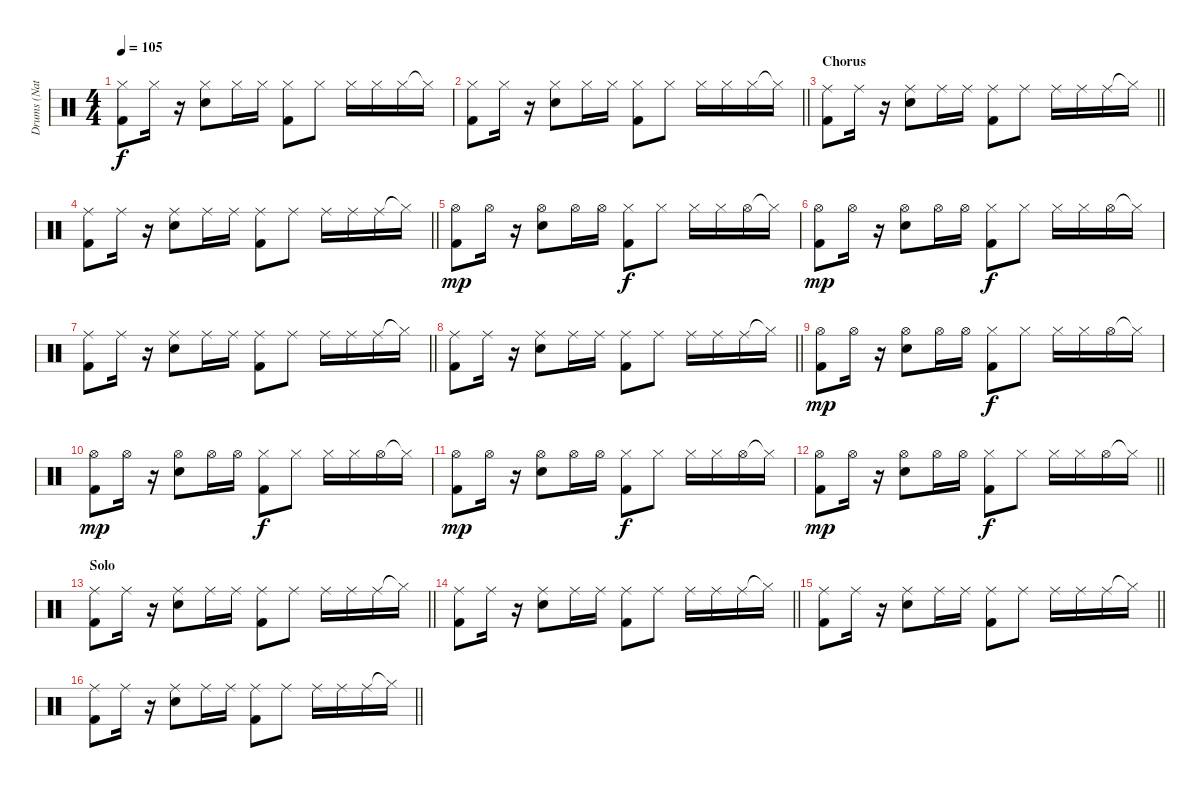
\track ("Drums (Nathan)" "Drums (Nat") {instrument percussion}
\staff {score}
\articulation defaults
\ts (4 4)
\tempo 105
\clef neutral
\ks c
("Hi-Hat (closed)" "Kick (hit) 2").8{dy f} "Hi-Hat (closed)".16 r.16 ("Hi-Hat (closed)" "Electric Snare (hit)").8 "Hi-Hat (closed)".16 "Hi-Hat (closed)".16 ("Hi-Hat (closed)" "Kick (hit) 2").8 "Hi-Hat (closed)".8 "Hi-Hat (closed)".16 "Hi-Hat (closed)".16 "Hi-Hat (closed)".16 "Hi-Hat (closed)"{t}.16 |
\barLineRight lightlight
("Hi-Hat (closed)" "Kick (hit) 2").8 "Hi-Hat (closed)".16 r.16 ("Hi-Hat (closed)" "Electric Snare (hit)").8 "Hi-Hat (closed)".16 "Hi-Hat (closed)".16 ("Hi-Hat (closed)" "Kick (hit) 2").8 "Hi-Hat (closed)".8 "Hi-Hat (closed)".16 "Hi-Hat (closed)".16 "Hi-Hat (closed)".16 "Hi-Hat (closed)"{t}.16 |
\section ("" "Chorus")
\barLineRight lightlight
("Ride (middle)" "Kick (hit) 2").8 "Ride (middle)".16 r.16 ("Ride (middle)" "Electric Snare (hit)").8 "Ride (middle)".16 "Ride (middle)".16 ("Ride (middle)" "Kick (hit) 2").8 "Ride (middle)".8 "Ride (middle)".16 "Ride (middle)".16 "Ride (middle)".16 "Hi-Hat (closed)"{t}.16 |
\barLineRight lightlight
("Ride (middle)" "Kick (hit) 2").8 "Ride (middle)".16 r.16 ("Ride (middle)" "Electric Snare (hit)").8 "Ride (middle)".16 "Ride (middle)".16 ("Ride (middle)" "Kick (hit) 2").8 "Ride (middle)".8 "Ride (middle)".16 "Ride (middle)".16 "Ride (middle)".16 "Hi-Hat (closed)"{t}.16 |
("Hi-Hat (open)" "Kick (hit) 2").8{dy mp} "Hi-Hat (open)".16 r.16 ("Hi-Hat (open)" "Electric Snare (hit)").8 "Hi-Hat (open)".16 "Hi-Hat (open)".16 ("Hi-Hat (closed)" "Kick (hit) 2").8{dy f} "Hi-Hat (closed)".8 "Hi-Hat (closed)".16 "Hi-Hat (closed)".16 "Hi-Hat (open)".16 "Hi-Hat (closed)"{t}.16 |
("Hi-Hat (open)" "Kick (hit) 2").8{dy mp} "Hi-Hat (open)".16 r.16 ("Hi-Hat (open)" "Electric Snare (hit)").8 "Hi-Hat (open)".16 "Hi-Hat (open)".16 ("Hi-Hat (closed)" "Kick (hit) 2").8{dy f} "Hi-Hat (closed)".8 "Hi-Hat (closed)".16 "Hi-Hat (closed)".16 "Hi-Hat (open)".16 "Hi-Hat (closed)"{t}.16 |
\barLineRight lightlight
("Ride (middle)" "Kick (hit) 2").8 "Ride (middle)".16 r.16 ("Ride (middle)" "Electric Snare (hit)").8 "Ride (middle)".16 "Ride (middle)".16 ("Ride (middle)" "Kick (hit) 2").8 "Ride (middle)".8 "Ride (middle)".16 "Ride (middle)".16 "Ride (middle)".16 "Hi-Hat (closed)"{t}.16 |
\barLineRight lightlight
("Ride (middle)" "Kick (hit) 2").8 "Ride (middle)".16 r.16 ("Ride (middle)" "Electric Snare (hit)").8 "Ride (middle)".16 "Ride (middle)".16 ("Ride (middle)" "Kick (hit) 2").8 "Ride (middle)".8 "Ride (middle)".16 "Ride (middle)".16 "Ride (middle)".16 "Hi-Hat (closed)"{t}.16 |
("Hi-Hat (open)" "Kick (hit) 2").8{dy mp} "Hi-Hat (open)".16 r.16 ("Hi-Hat (open)" "Electric Snare (hit)").8 "Hi-Hat (open)".16 "Hi-Hat (open)".16 ("Hi-Hat (closed)" "Kick (hit) 2").8{dy f} "Hi-Hat (closed)".8 "Hi-Hat (closed)".16 "Hi-Hat (closed)".16 "Hi-Hat (open)".16 "Hi-Hat (closed)"{t}.16 |
("Hi-Hat (open)" "Kick (hit) 2").8{dy mp} "Hi-Hat (open)".16 r.16 ("Hi-Hat (open)" "Electric Snare (hit)").8 "Hi-Hat (open)".16 "Hi-Hat (open)".16 ("Hi-Hat (closed)" "Kick (hit) 2").8{dy f} "Hi-Hat (closed)".8 "Hi-Hat (closed)".16 "Hi-Hat (closed)".16 "Hi-Hat (open)".16 "Hi-Hat (closed)"{t}.16 |
("Hi-Hat (open)" "Kick (hit) 2").8{dy mp} "Hi-Hat (open)".16 r.16 ("Hi-Hat (open)" "Electric Snare (hit)").8 "Hi-Hat (open)".16 "Hi-Hat (open)".16 ("Hi-Hat (closed)" "Kick (hit) 2").8{dy f} "Hi-Hat (closed)".8 "Hi-Hat (closed)".16 "Hi-Hat (closed)".16 "Hi-Hat (open)".16 "Hi-Hat (closed)"{t}.16 |
\barLineRight lightlight
("Hi-Hat (open)" "Kick (hit) 2").8{dy mp} "Hi-Hat (open)".16 r.16 ("Hi-Hat (open)" "Electric Snare (hit)").8 "Hi-Hat (open)".16 "Hi-Hat (open)".16 ("Hi-Hat (closed)" "Kick (hit) 2").8{dy f} "Hi-Hat (closed)".8 "Hi-Hat (closed)".16 "Hi-Hat (closed)".16 "Hi-Hat (open)".16 "Hi-Hat (closed)"{t}.16 |
\section ("" "Solo")
\barLineRight lightlight
("Ride (middle)" "Kick (hit) 2").8 "Ride (middle)".16 r.16 ("Ride (middle)" "Electric Snare (hit)").8 "Ride (middle)".16 "Ride (middle)".16 ("Ride (middle)" "Kick (hit) 2").8 "Ride (middle)".8 "Ride (middle)".16 "Ride (middle)".16 "Ride (middle)".16 "Hi-Hat (closed)"{t}.16 |
\barLineRight lightlight
("Ride (middle)" "Kick (hit) 2").8 "Ride (middle)".16 r.16 ("Ride (middle)" "Electric Snare (hit)").8 "Ride (middle)".16 "Ride (middle)".16 ("Ride (middle)" "Kick (hit) 2").8 "Ride (middle)".8 "Ride (middle)".16 "Ride (middle)".16 "Ride (middle)".16 "Hi-Hat (closed)"{t}.16 |
\barLineRight lightlight
("Ride (middle)" "Kick (hit) 2").8 "Ride (middle)".16 r.16 ("Ride (middle)" "Electric Snare (hit)").8 "Ride (middle)".16 "Ride (middle)".16 ("Ride (middle)" "Kick (hit) 2").8 "Ride (middle)".8 "Ride (middle)".16 "Ride (middle)".16 "Ride (middle)".16 "Hi-Hat (closed)"{t}.16 |
\barLineRight lightlight
("Ride (middle)" "Kick (hit) 2").8 "Ride (middle)".16 r.16 ("Ride (middle)" "Electric Snare (hit)").8 "Ride (middle)".16 "Ride (middle)".16 ("Ride (middle)" "Kick (hit) 2").8 "Ride (middle)".8 "Ride (middle)".16 "Ride (middle)".16 "Ride (middle)".16 "Hi-Hat (closed)"{t}.16
